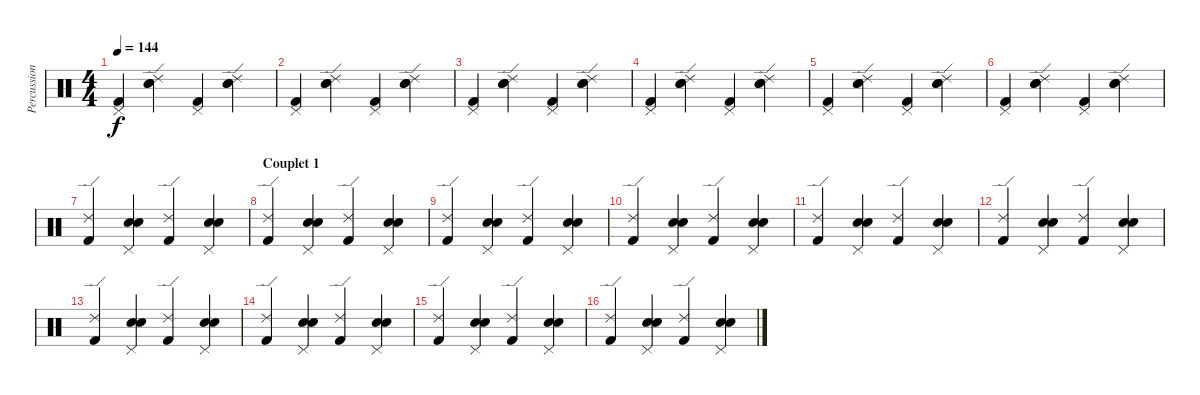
\track ("Percussions" "Percussion") {instrument percussion}
\staff {score}
\articulation defaults
\ts (4 4)
\tempo 144
\clef neutral
\ks c
("Kick (hit) 2" "Pedal Hi-Hat (hit)").4{dy f} ("Snare (hit) 2" "Electric Snare (hit)" "Ride (edge) 2").4 ("Kick (hit) 2" "Pedal Hi-Hat (hit)").4 ("Snare (hit) 2" "Electric Snare (hit)" "Ride (edge) 2").4 |
("Kick (hit) 2" "Pedal Hi-Hat (hit)").4 ("Snare (hit) 2" "Electric Snare (hit)" "Ride (edge) 2").4 ("Kick (hit) 2" "Pedal Hi-Hat (hit)").4 ("Snare (hit) 2" "Electric Snare (hit)" "Ride (edge) 2").4 |
("Kick (hit) 2" "Pedal Hi-Hat (hit)").4 ("Snare (hit) 2" "Electric Snare (hit)" "Ride (edge) 2").4 ("Kick (hit) 2" "Pedal Hi-Hat (hit)").4 ("Snare (hit) 2" "Electric Snare (hit)" "Ride (edge) 2").4 |
("Kick (hit) 2" "Pedal Hi-Hat (hit)").4 ("Snare (hit) 2" "Electric Snare (hit)" "Ride (edge) 2").4 ("Kick (hit) 2" "Pedal Hi-Hat (hit)").4 ("Snare (hit) 2" "Electric Snare (hit)" "Ride (edge) 2").4 |
("Kick (hit) 2" "Pedal Hi-Hat (hit)").4 ("Snare (hit) 2" "Electric Snare (hit)" "Ride (edge) 2").4 ("Kick (hit) 2" "Pedal Hi-Hat (hit)").4 ("Snare (hit) 2" "Electric Snare (hit)" "Ride (edge) 2").4 |
("Kick (hit) 2" "Pedal Hi-Hat (hit)").4 ("Snare (hit) 2" "Electric Snare (hit)" "Ride (edge) 2").4 ("Kick (hit) 2" "Pedal Hi-Hat (hit)").4 ("Snare (hit) 2" "Electric Snare (hit)" "Ride (edge) 2").4 |
("Kick (hit) 2" "Ride (edge) 2").4 ("Snare (hit) 2" "Electric Snare (hit)" "Pedal Hi-Hat (hit)").4 ("Kick (hit) 2" "Ride (edge) 2").4 ("Snare (hit) 2" "Electric Snare (hit)" "Pedal Hi-Hat (hit)").4 |
\section ("" "Couplet 1")
("Kick (hit) 2" "Ride (edge) 2").4 ("Snare (hit) 2" "Electric Snare (hit)" "Pedal Hi-Hat (hit)").4 ("Kick (hit) 2" "Ride (edge) 2").4 ("Snare (hit) 2" "Electric Snare (hit)" "Pedal Hi-Hat (hit)").4 |
("Kick (hit) 2" "Ride (edge) 2").4 ("Snare (hit) 2" "Electric Snare (hit)" "Pedal Hi-Hat (hit)").4 ("Kick (hit) 2" "Ride (edge) 2").4 ("Snare (hit) 2" "Electric Snare (hit)" "Pedal Hi-Hat (hit)").4 |
("Kick (hit) 2" "Ride (edge) 2").4 ("Snare (hit) 2" "Electric Snare (hit)" "Pedal Hi-Hat (hit)").4 ("Kick (hit) 2" "Ride (edge) 2").4 ("Snare (hit) 2" "Electric Snare (hit)" "Pedal Hi-Hat (hit)").4 |
("Kick (hit) 2" "Ride (edge) 2").4 ("Snare (hit) 2" "Electric Snare (hit)" "Pedal Hi-Hat (hit)").4 ("Kick (hit) 2" "Ride (edge) 2").4 ("Snare (hit) 2" "Electric Snare (hit)" "Pedal Hi-Hat (hit)").4 |
("Kick (hit) 2" "Ride (edge) 2").4 ("Snare (hit) 2" "Electric Snare (hit)" "Pedal Hi-Hat (hit)").4 ("Kick (hit) 2" "Ride (edge) 2").4 ("Snare (hit) 2" "Electric Snare (hit)" "Pedal Hi-Hat (hit)").4 |
("Kick (hit) 2" "Ride (edge) 2").4 ("Snare (hit) 2" "Electric Snare (hit)" "Pedal Hi-Hat (hit)").4 ("Kick (hit) 2" "Ride (edge) 2").4 ("Snare (hit) 2" "Electric Snare (hit)" "Pedal Hi-Hat (hit)").4 |
("Kick (hit) 2" "Ride (edge) 2").4 ("Snare (hit) 2" "Electric Snare (hit)" "Pedal Hi-Hat (hit)").4 ("Kick (hit) 2" "Ride (edge) 2").4 ("Snare (hit) 2" "Electric Snare (hit)" "Pedal Hi-Hat (hit)").4 |
("Kick (hit) 2" "Ride (edge) 2").4 ("Snare (hit) 2" "Electric Snare (hit)" "Pedal Hi-Hat (hit)").4 ("Kick (hit) 2" "Ride (edge) 2").4 ("Snare (hit) 2" "Electric Snare (hit)" "Pedal Hi-Hat (hit)").4 |
("Kick (hit) 2" "Ride (edge) 2").4 ("Snare (hit) 2" "Electric Snare (hit)" "Pedal Hi-Hat (hit)").4 ("Kick (hit) 2" "Ride (edge) 2").4 ("Snare (hit) 2" "Electric Snare (hit)" "Pedal Hi-Hat (hit)").4
